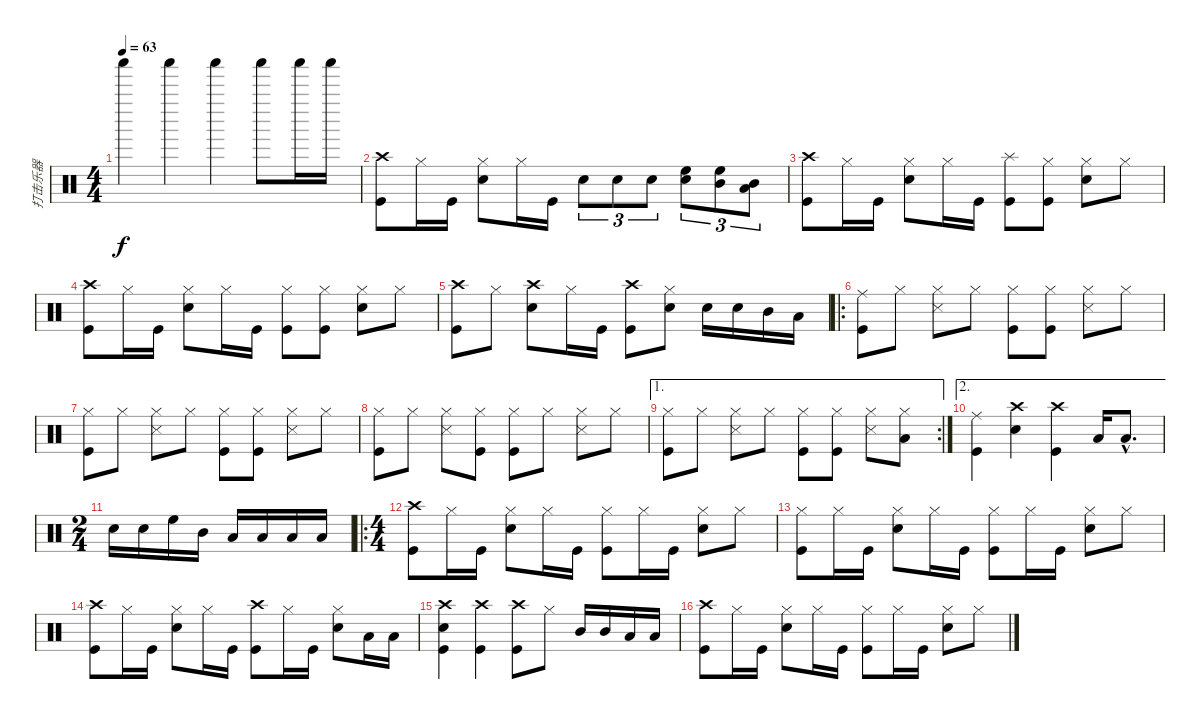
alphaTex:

\track ("打击乐器" "打击乐器") {instrument percussion}
\staff {score}
\articulation defaults
\ts (4 4)
\tempo 63
\clef neutral
\ks aminor "Shaker (hit)".4{dy f} "Shaker (hit)".4 "Shaker (hit)".4 "Shaker (hit)".8 "Shaker (hit)".16 "Shaker (hit)".16
|
("Crash high (hit)" "Kick (hit)").8 "Hi-Hat (closed)".16 "Kick (hit)".16 ("Hi-Hat (closed)" "Electric Snare (hit)").8 "Hi-Hat (closed)".16 "Kick (hit)".16 "Electric Snare (hit)".8{tu (3 2)} "Electric Snare (hit)".8{tu (3 2)} "Electric Snare (hit)".8{tu (3 2)} ("High Floor Tom (hit)" "Electric Snare (hit)").8{tu (3 2)} ("High Floor Tom (hit)" "Mid Tom (hit)").8{tu (3 2)} ("Mid Tom (hit)" "Low Floor Tom (hit)").8{tu (3 2)} |
("Crash high (hit)" "Kick (hit)").8 "Hi-Hat (closed)".16 "Kick (hit)".16 ("Hi-Hat (closed)" "Electric Snare (hit)").8 "Hi-Hat (closed)".16 "Kick (hit)".16 ("Splash (hit)" "Kick (hit)").8 ("Hi-Hat (closed)" "Kick (hit)").8 ("Hi-Hat (closed)" "Electric Snare (hit)").8 "Hi-Hat (closed)".8 |
("Crash high (hit)" "Kick (hit)").8 "Hi-Hat (closed)".16 "Kick (hit)".16 ("Hi-Hat (closed)" "Electric Snare (hit)").8 "Hi-Hat (closed)".16 "Kick (hit)".16 ("Hi-Hat (closed)" "Kick (hit)").8 ("Hi-Hat (closed)" "Kick (hit)").8 ("Hi-Hat (closed)" "Electric Snare (hit)").8 "Hi-Hat (closed)".8 |
("Crash high (hit)" "Kick (hit)").8 "Hi-Hat (closed)".8 ("Crash high (hit)" "Electric Snare (hit)").8 "Hi-Hat (closed)".16 "Kick (hit)".16 ("Crash high (hit)" "Kick (hit)").8 ("Hi-Hat (closed)" "Electric Snare (hit)").8 "Electric Snare (hit)".16 "Electric Snare (hit)".16 "Mid Tom (hit)".16 "Low Tom (hit)".16 |
\ro
("Ride (middle)" "Kick (hit)").8 "Hi-Hat (closed)".8 ("Hi-Hat (closed)" "Snare (side stick) 3").8 "Hi-Hat (closed)".8 ("Hi-Hat (closed)" "Kick (hit)").8 ("Hi-Hat (closed)" "Kick (hit)").8 ("Hi-Hat (closed)" "Snare (side stick) 3").8 "Hi-Hat (closed)".8 |
("Hi-Hat (closed)" "Kick (hit)").8 "Hi-Hat (closed)".8 ("Hi-Hat (closed)" "Snare (side stick) 3").8 "Hi-Hat (closed)".8 ("Hi-Hat (closed)" "Kick (hit)").8 ("Hi-Hat (closed)" "Kick (hit)").8 ("Hi-Hat (closed)" "Snare (side stick) 3").8 "Hi-Hat (closed)".8 |
("Hi-Hat (closed)" "Kick (hit)").8 "Hi-Hat (closed)".8 ("Hi-Hat (closed)" "Snare (side stick) 3").8 ("Hi-Hat (closed)" "Kick (hit)").8 ("Hi-Hat (closed)" "Kick (hit)").8 "Hi-Hat (closed)".8 ("Hi-Hat (closed)" "Snare (side stick) 3").8 "Hi-Hat (closed)".8 |
\ae 1
\rc 2
("Hi-Hat (closed)" "Kick (hit)").8 "Hi-Hat (closed)".8 ("Hi-Hat (closed)" "Snare (side stick) 3").8 "Hi-Hat (closed)".8 ("Hi-Hat (closed)" "Kick (hit)").8 ("Hi-Hat (closed)" "Kick (hit)").8 ("Hi-Hat (closed)" "Snare (side stick) 3").8 ("Hi-Hat (closed)" "Low Floor Tom (hit)").8 |
\ae 2
("Ride (middle)" "Kick (hit)").4 ("Crash high (hit)" "Electric Snare (hit)").4 ("Crash high (hit)" "Kick (hit)").4 "Low Tom (hit)".16 "Low Floor Tom (hit)"{hac}.8{d} |
\ts (2 4)
"Electric Snare (hit)".16 "Electric Snare (hit)".16 "High Floor Tom (hit)".16 "Mid Tom (hit)".16 "Low Tom (hit)".16 "Low Tom (hit)".16 "Low Floor Tom (hit)".16 "Low Floor Tom (hit)".16 |
\ro
\ts (4 4)
("Crash high (hit)" "Kick (hit)").8 "Hi-Hat (closed)".16 "Kick (hit)".16 ("Hi-Hat (closed)" "Electric Snare (hit)").8 "Hi-Hat (closed)".16 "Kick (hit)".16 ("Hi-Hat (closed)" "Kick (hit)").8 "Hi-Hat (closed)".16 "Kick (hit)".16 ("Hi-Hat (closed)" "Electric Snare (hit)").8 "Hi-Hat (closed)".8 |
("Hi-Hat (closed)" "Kick (hit)").8 "Hi-Hat (closed)".16 "Kick (hit)".16 ("Hi-Hat (closed)" "Electric Snare (hit)").8 "Hi-Hat (closed)".16 "Kick (hit)".16 ("Hi-Hat (closed)" "Kick (hit)").8 "Hi-Hat (closed)".16 "Kick (hit)".16 ("Hi-Hat (closed)" "Electric Snare (hit)").8 "Hi-Hat (closed)".8 |
("Crash high (hit)" "Kick (hit)").8 "Hi-Hat (closed)".16 "Kick (hit)".16 ("Hi-Hat (closed)" "Electric Snare (hit)").8 "Hi-Hat (closed)".16 "Kick (hit)".16 ("Crash high (hit)" "Kick (hit)").8 "Hi-Hat (closed)".16 "Kick (hit)".16 ("Hi-Hat (closed)" "Electric Snare (hit)").8 "Low Tom (hit)".16 "Low Floor Tom (hit)".16 |
("Crash high (hit)" "Electric Snare (hit)" "Kick (hit)").4 ("Crash high (hit)" "Kick (hit)").4 ("Crash high (hit)" "Kick (hit)").8 "Hi-Hat (closed)".8 "Mid Tom (hit)".16 "Mid Tom (hit)".16 "Low Tom (hit)".16 "Low Tom (hit)".16 |
("Crash high (hit)" "Kick (hit)").8 "Hi-Hat (closed)".16 "Kick (hit)".16 ("Hi-Hat (closed)" "Electric Snare (hit)").8 "Hi-Hat (closed)".16 "Kick (hit)".16 ("Hi-Hat (closed)" "Kick (hit)").8 "Hi-Hat (closed)".16 "Kick (hit)".16 ("Hi-Hat (closed)" "Electric Snare (hit)").8 "Hi-Hat (closed)".8
